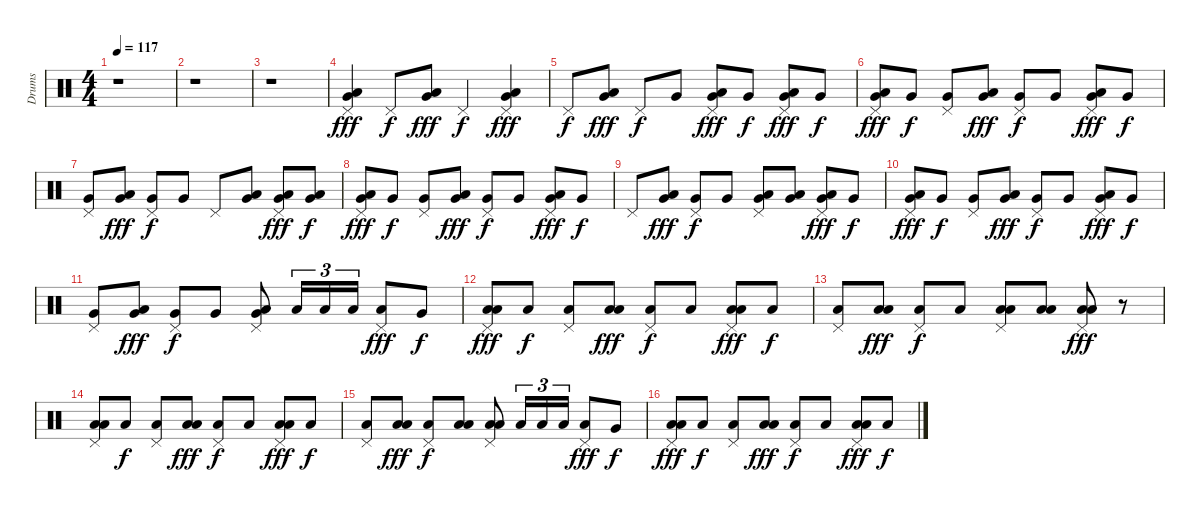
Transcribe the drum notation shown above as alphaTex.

\track ("Drums" "Drums") {instrument percussion}
\staff {score}
\articulation defaults
\ts (4 4)
\tempo 117
\clef neutral
\ks c
r.1{dy f} |
r.1 |
r.1 |
("Pedal Hi-Hat (hit)" "Low Tom (hit)" "Very Low Tom (hit)").4{dy fff} "Pedal Hi-Hat (hit)".8{dy f} ("Low Tom (hit)" "Very Low Tom (hit)").8{dy fff} "Pedal Hi-Hat (hit)".4{dy f} ("Pedal Hi-Hat (hit)" "Low Tom (hit)" "Very Low Tom (hit)").4{dy fff} |
"Pedal Hi-Hat (hit)".8{dy f} ("Low Tom (hit)" "Very Low Tom (hit)").8{dy fff} "Pedal Hi-Hat (hit)".8{dy f} "Very Low Tom (hit)".8 ("Pedal Hi-Hat (hit)" "Low Tom (hit)" "Very Low Tom (hit)").8{dy fff} "Very Low Tom (hit)".8{dy f} ("Pedal Hi-Hat (hit)" "Low Tom (hit)" "Very Low Tom (hit)").8{dy fff} "Very Low Tom (hit)".8{dy f} |
("Pedal Hi-Hat (hit)" "Low Tom (hit)" "Very Low Tom (hit)").8{dy fff} "Very Low Tom (hit)".8{dy f} ("Pedal Hi-Hat (hit)" "Very Low Tom (hit)").8 ("Low Tom (hit)" "Very Low Tom (hit)").8{dy fff} ("Pedal Hi-Hat (hit)" "Very Low Tom (hit)").8{dy f} "Very Low Tom (hit)".8 ("Pedal Hi-Hat (hit)" "Low Tom (hit)" "Very Low Tom (hit)").8{dy fff} "Very Low Tom (hit)".8{dy f} |
("Pedal Hi-Hat (hit)" "Very Low Tom (hit)").8 ("Low Tom (hit)" "Very Low Tom (hit)").8{dy fff} ("Pedal Hi-Hat (hit)" "Very Low Tom (hit)").8{dy f} "Very Low Tom (hit)".8 "Pedal Hi-Hat (hit)".8 ("Low Tom (hit)" "Very Low Tom (hit)").8 ("Pedal Hi-Hat (hit)" "Low Tom (hit)" "Very Low Tom (hit)").8{dy fff} ("Low Tom (hit)" "Very Low Tom (hit)").8{dy f} |
("Pedal Hi-Hat (hit)" "Low Tom (hit)" "Very Low Tom (hit)").8{dy fff} "Very Low Tom (hit)".8{dy f} ("Pedal Hi-Hat (hit)" "Very Low Tom (hit)").8 ("Low Tom (hit)" "Very Low Tom (hit)").8{dy fff} ("Pedal Hi-Hat (hit)" "Very Low Tom (hit)").8{dy f} "Very Low Tom (hit)".8 ("Pedal Hi-Hat (hit)" "Low Tom (hit)" "Very Low Tom (hit)").8{dy fff} "Very Low Tom (hit)".8{dy f} |
"Pedal Hi-Hat (hit)".8 ("Low Tom (hit)" "Very Low Tom (hit)").8{dy fff} ("Pedal Hi-Hat (hit)" "Very Low Tom (hit)").8{dy f} "Very Low Tom (hit)".8 ("Pedal Hi-Hat (hit)" "Low Tom (hit)" "Very Low Tom (hit)").8 ("Low Tom (hit)" "Very Low Tom (hit)").8 ("Pedal Hi-Hat (hit)" "Low Tom (hit)" "Very Low Tom (hit)").8{dy fff} "Very Low Tom (hit)".8{dy f} |
("Pedal Hi-Hat (hit)" "Low Tom (hit)" "Very Low Tom (hit)").8{dy fff} "Very Low Tom (hit)".8{dy f} ("Pedal Hi-Hat (hit)" "Very Low Tom (hit)").8 ("Low Tom (hit)" "Very Low Tom (hit)").8{dy fff} ("Pedal Hi-Hat (hit)" "Very Low Tom (hit)").8{dy f} "Very Low Tom (hit)".8 ("Pedal Hi-Hat (hit)" "Low Tom (hit)" "Very Low Tom (hit)").8{dy fff} "Very Low Tom (hit)".8{dy f} |
("Pedal Hi-Hat (hit)" "Very Low Tom (hit)").8 ("Low Tom (hit)" "Very Low Tom (hit)").8{dy fff} ("Pedal Hi-Hat (hit)" "Very Low Tom (hit)").8{dy f} "Very Low Tom (hit)".8 ("Pedal Hi-Hat (hit)" "Low Tom (hit)" "Very Low Tom (hit)").8 "Low Tom (hit)".16{tu (3 2)} "Low Tom (hit)".16{tu (3 2)} "Low Tom (hit)".16{tu (3 2)} ("Pedal Hi-Hat (hit)" "Low Tom (hit)").8{dy fff} "Very Low Tom (hit)".8{dy f} |
("Pedal Hi-Hat (hit)" "Low Tom (hit)" "Low Floor Tom (hit)").8{dy fff} "Low Floor Tom (hit)".8{dy f} ("Pedal Hi-Hat (hit)" "Low Floor Tom (hit)").8 ("Low Tom (hit)" "Low Floor Tom (hit)").8{dy fff} ("Pedal Hi-Hat (hit)" "Low Floor Tom (hit)").8{dy f} "Low Floor Tom (hit)".8 ("Pedal Hi-Hat (hit)" "Low Tom (hit)" "Low Floor Tom (hit)").8{dy fff} "Low Floor Tom (hit)".8{dy f} |
("Pedal Hi-Hat (hit)" "Low Floor Tom (hit)").8 ("Low Tom (hit)" "Low Floor Tom (hit)").8{dy fff} ("Pedal Hi-Hat (hit)" "Low Floor Tom (hit)").8{dy f} "Low Floor Tom (hit)".8 ("Pedal Hi-Hat (hit)" "Low Tom (hit)" "Low Floor Tom (hit)").8 ("Low Tom (hit)" "Low Floor Tom (hit)").8 ("Pedal Hi-Hat (hit)" "Low Tom (hit)" "Low Floor Tom (hit)").8{dy fff} r.8 |
("Pedal Hi-Hat (hit)" "Low Tom (hit)" "Low Floor Tom (hit)").8 "Low Floor Tom (hit)".8{dy f} ("Pedal Hi-Hat (hit)" "Low Floor Tom (hit)").8 ("Low Tom (hit)" "Low Floor Tom (hit)").8{dy fff} ("Pedal Hi-Hat (hit)" "Low Floor Tom (hit)").8{dy f} "Low Floor Tom (hit)".8 ("Pedal Hi-Hat (hit)" "Low Tom (hit)" "Low Floor Tom (hit)").8{dy fff} "Low Floor Tom (hit)".8{dy f} |
("Pedal Hi-Hat (hit)" "Low Floor Tom (hit)").8 ("Low Tom (hit)" "Low Floor Tom (hit)").8{dy fff} ("Pedal Hi-Hat (hit)" "Low Floor Tom (hit)").8{dy f} ("Low Tom (hit)" "Low Floor Tom (hit)").8 ("Pedal Hi-Hat (hit)" "Low Tom (hit)" "Low Floor Tom (hit)").8 "Low Tom (hit)".16{tu (3 2)} "Low Tom (hit)".16{tu (3 2)} "Low Tom (hit)".16{tu (3 2)} ("Pedal Hi-Hat (hit)" "Low Tom (hit)").8{dy fff} "Very Low Tom (hit)".8{dy f} |
("Pedal Hi-Hat (hit)" "Low Tom (hit)" "Low Floor Tom (hit)").8{dy fff} "Low Floor Tom (hit)".8{dy f} ("Pedal Hi-Hat (hit)" "Low Floor Tom (hit)").8 ("Low Tom (hit)" "Low Floor Tom (hit)").8{dy fff} ("Pedal Hi-Hat (hit)" "Low Floor Tom (hit)").8{dy f} "Low Floor Tom (hit)".8 ("Pedal Hi-Hat (hit)" "Low Tom (hit)" "Low Floor Tom (hit)").8{dy fff} "Low Floor Tom (hit)".8{dy f}
